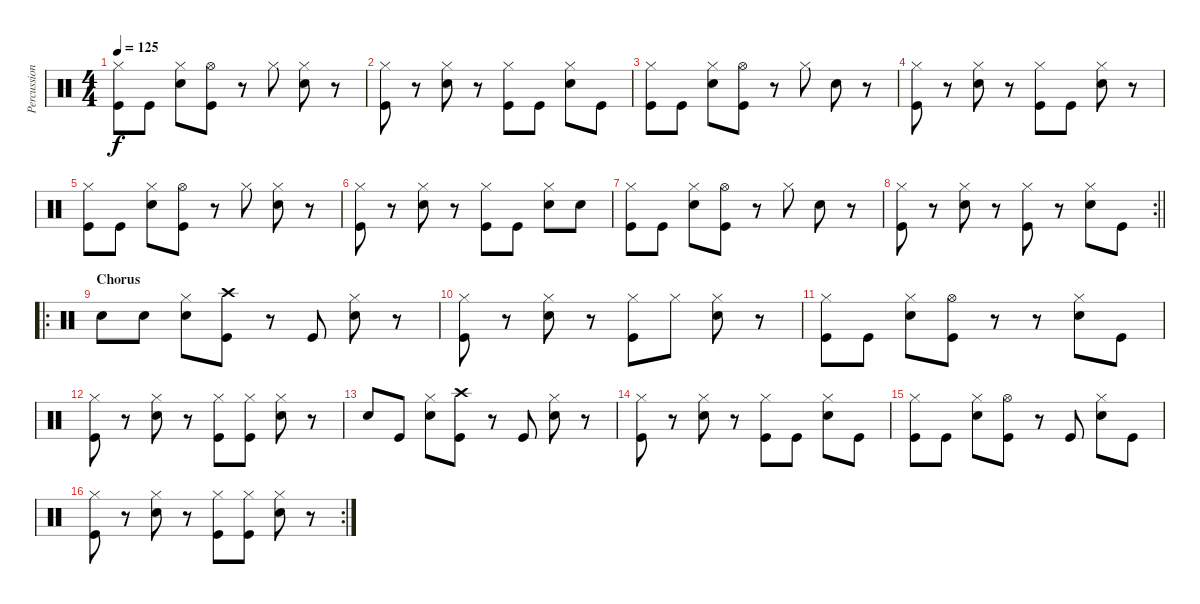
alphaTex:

\track ("Percussion" "Percussion") {instrument percussion bank 177}
\staff {score}
\articulation defaults
\ts (4 4)
\tempo 125
\clef neutral
\ks c
("Hi-Hat (closed)" "Kick (hit)").8{dy f} "Kick (hit)".8 ("Hi-Hat (closed)" "Snare (hit) 2").8 ("Hi-Hat (open)" "Kick (hit)").8 r.8 "Hi-Hat (closed)".8 ("Hi-Hat (closed)" "Snare (hit) 2").8 r.8 |
("Hi-Hat (closed)" "Kick (hit)").8 r.8 ("Hi-Hat (closed)" "Snare (hit) 2").8 r.8 ("Hi-Hat (closed)" "Kick (hit)").8 "Kick (hit)".8 ("Hi-Hat (closed)" "Snare (hit) 2").8 "Kick (hit)".8 |
("Hi-Hat (closed)" "Kick (hit)").8 "Kick (hit)".8 ("Hi-Hat (closed)" "Snare (hit) 2").8 ("Hi-Hat (open)" "Kick (hit)").8 r.8 "Hi-Hat (closed)".8 "Snare (hit) 2".8 r.8 |
("Hi-Hat (closed)" "Kick (hit)").8 r.8 ("Hi-Hat (closed)" "Snare (hit) 2").8 r.8 ("Hi-Hat (closed)" "Kick (hit)").8 "Kick (hit)".8 ("Hi-Hat (closed)" "Snare (hit) 2").8 r.8 |
("Hi-Hat (closed)" "Kick (hit)").8 "Kick (hit)".8 ("Hi-Hat (closed)" "Snare (hit) 2").8 ("Hi-Hat (open)" "Kick (hit)").8 r.8 "Hi-Hat (closed)".8 ("Hi-Hat (closed)" "Snare (hit) 2").8 r.8 |
("Hi-Hat (closed)" "Kick (hit)").8 r.8 ("Hi-Hat (closed)" "Snare (hit) 2").8 r.8 ("Hi-Hat (closed)" "Kick (hit)").8 "Kick (hit)".8 ("Hi-Hat (closed)" "Snare (hit) 2").8 "Snare (hit) 2".8 |
("Hi-Hat (closed)" "Kick (hit)").8 "Kick (hit)".8 ("Hi-Hat (closed)" "Snare (hit) 2").8 ("Hi-Hat (open)" "Kick (hit)").8 r.8 "Hi-Hat (closed)".8 "Snare (hit) 2".8 r.8 |
\rc 2
\barLineRight lightlight
("Hi-Hat (closed)" "Kick (hit)").8 r.8 ("Hi-Hat (closed)" "Snare (hit) 2").8 r.8 ("Hi-Hat (closed)" "Kick (hit)").8 r.8 ("Hi-Hat (closed)" "Snare (hit) 2").8 "Kick (hit)".8 |
\ro
\section ("" "Chorus")
"Snare (hit) 2".8 "Snare (hit) 2".8 ("Hi-Hat (closed)" "Snare (hit) 2").8 ("Crash high (hit)" "Kick (hit)").8 r.8 "Kick (hit)".8 ("Hi-Hat (closed)" "Snare (hit) 2").8 r.8 |
("Hi-Hat (closed)" "Kick (hit)").8 r.8 ("Hi-Hat (closed)" "Snare (hit) 2").8 r.8 ("Hi-Hat (closed)" "Kick (hit)").8 "Hi-Hat (closed)".8 ("Hi-Hat (closed)" "Snare (hit) 2").8 r.8 |
("Hi-Hat (closed)" "Kick (hit)").8 "Kick (hit)".8 ("Hi-Hat (closed)" "Snare (hit) 2").8 ("Hi-Hat (open)" "Kick (hit)").8 r.8 r.8 ("Hi-Hat (closed)" "Snare (hit) 2").8 "Kick (hit)".8 |
("Hi-Hat (closed)" "Kick (hit)").8 r.8 ("Hi-Hat (closed)" "Snare (hit) 2").8 r.8 ("Hi-Hat (closed)" "Kick (hit)").8 ("Hi-Hat (closed)" "Kick (hit)").8 ("Hi-Hat (closed)" "Snare (hit) 2").8 r.8 |
"Snare (hit) 2".8 "Kick (hit)".8 ("Hi-Hat (closed)" "Snare (hit) 2").8 ("Crash high (hit)" "Kick (hit)").8 r.8 "Kick (hit)".8 ("Hi-Hat (closed)" "Snare (hit) 2").8 r.8 |
("Hi-Hat (closed)" "Kick (hit)").8 r.8 ("Hi-Hat (closed)" "Snare (hit) 2").8 r.8 ("Hi-Hat (closed)" "Kick (hit)").8 "Kick (hit)".8 ("Hi-Hat (closed)" "Snare (hit) 2").8 "Kick (hit)".8 |
("Hi-Hat (closed)" "Kick (hit)").8 "Kick (hit)".8 ("Hi-Hat (closed)" "Snare (hit) 2").8 ("Hi-Hat (open)" "Kick (hit)").8 r.8 "Kick (hit)".8 ("Hi-Hat (closed)" "Snare (hit) 2").8 "Kick (hit)".8 |
\rc 2
("Hi-Hat (closed)" "Kick (hit)").8 r.8 ("Hi-Hat (closed)" "Snare (hit) 2").8 r.8 ("Hi-Hat (closed)" "Kick (hit)").8 ("Hi-Hat (closed)" "Kick (hit)").8 ("Hi-Hat (closed)" "Snare (hit) 2").8 r.8
